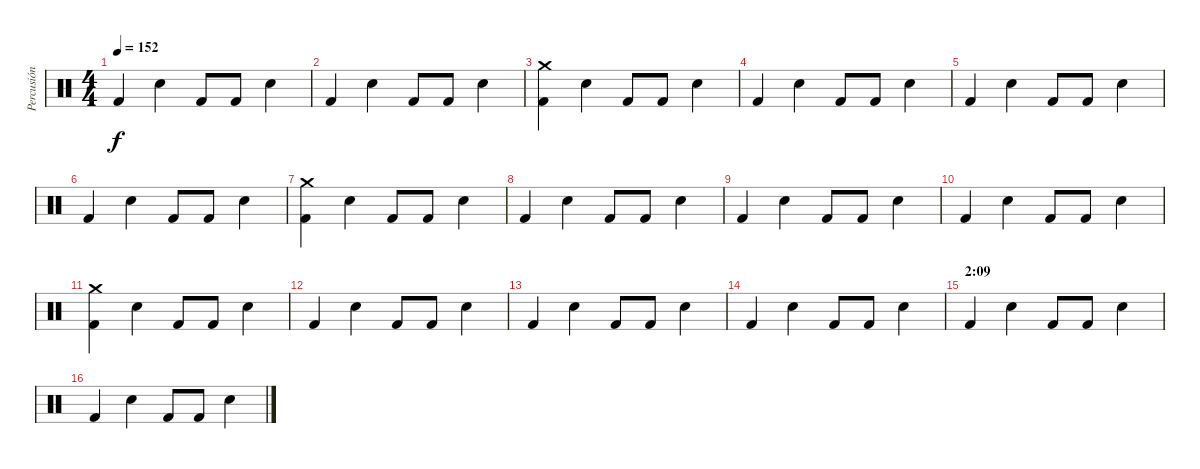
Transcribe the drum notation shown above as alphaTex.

\track ("Percusión" "Percusión") {instrument percussion}
\staff {score}
\articulation defaults
\ts (4 4)
\tempo 152
\clef neutral
\ks c "Kick (hit) 2".4{dy f} "Snare (hit) 2".4 "Kick (hit) 2".8 "Kick (hit) 2".8 "Snare (hit) 2".4
|
"Kick (hit) 2".4 "Snare (hit) 2".4 "Kick (hit) 2".8 "Kick (hit) 2".8 "Snare (hit) 2".4 |
("Kick (hit) 2" "Crash medium (hit)").4 "Snare (hit) 2".4 "Kick (hit) 2".8 "Kick (hit) 2".8 "Snare (hit) 2".4 |
"Kick (hit) 2".4 "Snare (hit) 2".4 "Kick (hit) 2".8 "Kick (hit) 2".8 "Snare (hit) 2".4 |
"Kick (hit) 2".4 "Snare (hit) 2".4 "Kick (hit) 2".8 "Kick (hit) 2".8 "Snare (hit) 2".4 |
"Kick (hit) 2".4 "Snare (hit) 2".4 "Kick (hit) 2".8 "Kick (hit) 2".8 "Snare (hit) 2".4 |
("Kick (hit) 2" "Crash medium (hit)").4 "Snare (hit) 2".4 "Kick (hit) 2".8 "Kick (hit) 2".8 "Snare (hit) 2".4 |
"Kick (hit) 2".4 "Snare (hit) 2".4 "Kick (hit) 2".8 "Kick (hit) 2".8 "Snare (hit) 2".4 |
"Kick (hit) 2".4 "Snare (hit) 2".4 "Kick (hit) 2".8 "Kick (hit) 2".8 "Snare (hit) 2".4 |
"Kick (hit) 2".4 "Snare (hit) 2".4 "Kick (hit) 2".8 "Kick (hit) 2".8 "Snare (hit) 2".4 |
("Kick (hit) 2" "Crash medium (hit)").4 "Snare (hit) 2".4 "Kick (hit) 2".8 "Kick (hit) 2".8 "Snare (hit) 2".4 |
"Kick (hit) 2".4 "Snare (hit) 2".4 "Kick (hit) 2".8 "Kick (hit) 2".8 "Snare (hit) 2".4 |
"Kick (hit) 2".4 "Snare (hit) 2".4 "Kick (hit) 2".8 "Kick (hit) 2".8 "Snare (hit) 2".4 |
"Kick (hit) 2".4 "Snare (hit) 2".4 "Kick (hit) 2".8 "Kick (hit) 2".8 "Snare (hit) 2".4 |
\section ("" "2:09")
"Kick (hit) 2".4 "Snare (hit) 2".4 "Kick (hit) 2".8 "Kick (hit) 2".8 "Snare (hit) 2".4 |
"Kick (hit) 2".4 "Snare (hit) 2".4 "Kick (hit) 2".8 "Kick (hit) 2".8 "Snare (hit) 2".4
